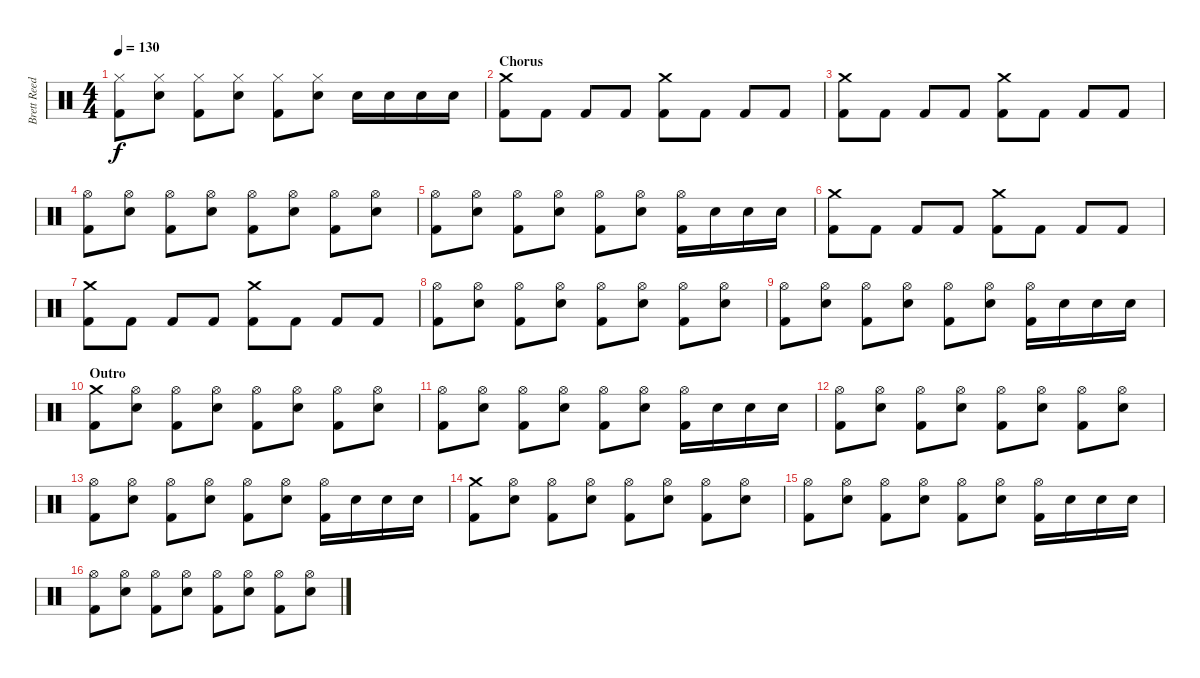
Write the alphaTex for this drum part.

\track ("Brett Reed" "Brett Reed") {instrument percussion}
\staff {score}
\articulation defaults
\ts (4 4)
\tempo 130
\clef neutral
\ks c
("Hi-Hat (closed)" "Kick (hit) 2").8{dy f} ("Hi-Hat (closed)" "Snare (hit) 2").8 ("Hi-Hat (closed)" "Kick (hit) 2").8 ("Hi-Hat (closed)" "Snare (hit) 2").8 ("Hi-Hat (closed)" "Kick (hit) 2").8 ("Hi-Hat (closed)" "Snare (hit) 2").8 "Snare (hit) 2".16 "Snare (hit) 2".16 "Snare (hit) 2".16 "Snare (hit) 2".16 |
\section ("" "Chorus")
("Crash medium (hit)" "Kick (hit) 2").8 "Kick (hit) 2".8 "Kick (hit) 2".8 "Kick (hit) 2".8 ("Crash medium (hit)" "Kick (hit) 2").8 "Kick (hit) 2".8 "Kick (hit) 2".8 "Kick (hit) 2".8 |
("Crash medium (hit)" "Kick (hit) 2").8 "Kick (hit) 2".8 "Kick (hit) 2".8 "Kick (hit) 2".8 ("Crash medium (hit)" "Kick (hit) 2").8 "Kick (hit) 2".8 "Kick (hit) 2".8 "Kick (hit) 2".8 |
("Hi-Hat (open)" "Kick (hit) 2").8 ("Hi-Hat (open)" "Snare (hit) 2").8 ("Hi-Hat (open)" "Kick (hit) 2").8 ("Hi-Hat (open)" "Snare (hit) 2").8 ("Hi-Hat (open)" "Kick (hit) 2").8 ("Hi-Hat (open)" "Snare (hit) 2").8 ("Hi-Hat (open)" "Kick (hit) 2").8 ("Hi-Hat (open)" "Snare (hit) 2").8 |
("Hi-Hat (open)" "Kick (hit) 2").8 ("Hi-Hat (open)" "Snare (hit) 2").8 ("Hi-Hat (open)" "Kick (hit) 2").8 ("Hi-Hat (open)" "Snare (hit) 2").8 ("Hi-Hat (open)" "Kick (hit) 2").8 ("Hi-Hat (open)" "Snare (hit) 2").8 ("Hi-Hat (open)" "Kick (hit) 2").16 "Snare (hit) 2".16 "Snare (hit) 2".16 "Snare (hit) 2".16 |
("Crash medium (hit)" "Kick (hit) 2").8 "Kick (hit) 2".8 "Kick (hit) 2".8 "Kick (hit) 2".8 ("Crash medium (hit)" "Kick (hit) 2").8 "Kick (hit) 2".8 "Kick (hit) 2".8 "Kick (hit) 2".8 |
("Crash medium (hit)" "Kick (hit) 2").8 "Kick (hit) 2".8 "Kick (hit) 2".8 "Kick (hit) 2".8 ("Crash medium (hit)" "Kick (hit) 2").8 "Kick (hit) 2".8 "Kick (hit) 2".8 "Kick (hit) 2".8 |
("Hi-Hat (open)" "Kick (hit) 2").8 ("Hi-Hat (open)" "Snare (hit) 2").8 ("Hi-Hat (open)" "Kick (hit) 2").8 ("Hi-Hat (open)" "Snare (hit) 2").8 ("Hi-Hat (open)" "Kick (hit) 2").8 ("Hi-Hat (open)" "Snare (hit) 2").8 ("Hi-Hat (open)" "Kick (hit) 2").8 ("Hi-Hat (open)" "Snare (hit) 2").8 |
("Hi-Hat (open)" "Kick (hit) 2").8 ("Hi-Hat (open)" "Snare (hit) 2").8 ("Hi-Hat (open)" "Kick (hit) 2").8 ("Hi-Hat (open)" "Snare (hit) 2").8 ("Hi-Hat (open)" "Kick (hit) 2").8 ("Hi-Hat (open)" "Snare (hit) 2").8 ("Hi-Hat (open)" "Kick (hit) 2").16 "Snare (hit) 2".16 "Snare (hit) 2".16 "Snare (hit) 2".16 |
\section ("" "Outro")
("Crash medium (hit)" "Kick (hit) 2").8 ("Hi-Hat (open)" "Snare (hit) 2").8 ("Hi-Hat (open)" "Kick (hit) 2").8 ("Hi-Hat (open)" "Snare (hit) 2").8 ("Hi-Hat (open)" "Kick (hit) 2").8 ("Hi-Hat (open)" "Snare (hit) 2").8 ("Hi-Hat (open)" "Kick (hit) 2").8 ("Hi-Hat (open)" "Snare (hit) 2").8 |
("Hi-Hat (open)" "Kick (hit) 2").8 ("Hi-Hat (open)" "Snare (hit) 2").8 ("Hi-Hat (open)" "Kick (hit) 2").8 ("Hi-Hat (open)" "Snare (hit) 2").8 ("Hi-Hat (open)" "Kick (hit) 2").8 ("Hi-Hat (open)" "Snare (hit) 2").8 ("Hi-Hat (open)" "Kick (hit) 2").16 "Snare (hit) 2".16 "Snare (hit) 2".16 "Snare (hit) 2".16 |
("Hi-Hat (open)" "Kick (hit) 2").8 ("Hi-Hat (open)" "Snare (hit) 2").8 ("Hi-Hat (open)" "Kick (hit) 2").8 ("Hi-Hat (open)" "Snare (hit) 2").8 ("Hi-Hat (open)" "Kick (hit) 2").8 ("Hi-Hat (open)" "Snare (hit) 2").8 ("Hi-Hat (open)" "Kick (hit) 2").8 ("Hi-Hat (open)" "Snare (hit) 2").8 |
("Hi-Hat (open)" "Kick (hit) 2").8 ("Hi-Hat (open)" "Snare (hit) 2").8 ("Hi-Hat (open)" "Kick (hit) 2").8 ("Hi-Hat (open)" "Snare (hit) 2").8 ("Hi-Hat (open)" "Kick (hit) 2").8 ("Hi-Hat (open)" "Snare (hit) 2").8 ("Hi-Hat (open)" "Kick (hit) 2").16 "Snare (hit) 2".16 "Snare (hit) 2".16 "Snare (hit) 2".16 |
("Crash medium (hit)" "Kick (hit) 2").8 ("Hi-Hat (open)" "Snare (hit) 2").8 ("Hi-Hat (open)" "Kick (hit) 2").8 ("Hi-Hat (open)" "Snare (hit) 2").8 ("Hi-Hat (open)" "Kick (hit) 2").8 ("Hi-Hat (open)" "Snare (hit) 2").8 ("Hi-Hat (open)" "Kick (hit) 2").8 ("Hi-Hat (open)" "Snare (hit) 2").8 |
("Hi-Hat (open)" "Kick (hit) 2").8 ("Hi-Hat (open)" "Snare (hit) 2").8 ("Hi-Hat (open)" "Kick (hit) 2").8 ("Hi-Hat (open)" "Snare (hit) 2").8 ("Hi-Hat (open)" "Kick (hit) 2").8 ("Hi-Hat (open)" "Snare (hit) 2").8 ("Hi-Hat (open)" "Kick (hit) 2").16 "Snare (hit) 2".16 "Snare (hit) 2".16 "Snare (hit) 2".16 |
("Hi-Hat (open)" "Kick (hit) 2").8 ("Hi-Hat (open)" "Snare (hit) 2").8 ("Hi-Hat (open)" "Kick (hit) 2").8 ("Hi-Hat (open)" "Snare (hit) 2").8 ("Hi-Hat (open)" "Kick (hit) 2").8 ("Hi-Hat (open)" "Snare (hit) 2").8 ("Hi-Hat (open)" "Kick (hit) 2").8 ("Hi-Hat (open)" "Snare (hit) 2").8
